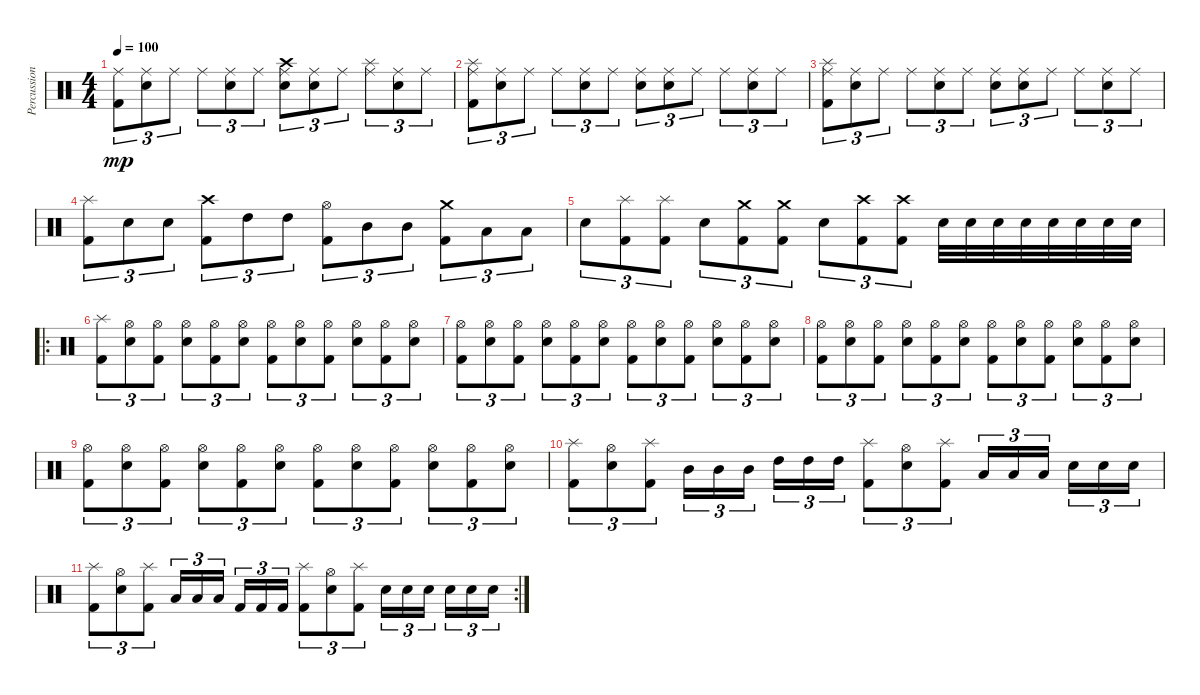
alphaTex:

\track ("Percussion" "Percussion") {instrument percussion}
\staff {score}
\articulation defaults
\ts (4 4)
\tempo 100
\clef neutral
\ks c
("Kick (hit) 2" "Ride (middle)").8{tu (3 2) dy mp} ("Snare (hit) 2" "Ride (middle)").8{tu (3 2)} "Ride (middle)".8{tu (3 2)} "Ride (middle)".8{tu (3 2)} ("Snare (hit) 2" "Ride (middle)").8{tu (3 2)} "Ride (middle)".8{tu (3 2)} ("Crash high (hit)" "Snare (hit) 2" "Ride (middle)").8{tu (3 2)} ("Snare (hit) 2" "Ride (middle)").8{tu (3 2)} "Ride (middle)".8{tu (3 2)} ("Splash (hit)" "Ride (middle)").8{tu (3 2)} ("Snare (hit) 2" "Ride (middle)").8{tu (3 2)} "Ride (middle)".8{tu (3 2)} |
("Splash (hit)" "Kick (hit) 2" "Ride (middle)").8{tu (3 2)} ("Snare (hit) 2" "Ride (middle)").8{tu (3 2)} "Ride (middle)".8{tu (3 2)} "Ride (middle)".8{tu (3 2)} ("Snare (hit) 2" "Ride (middle)").8{tu (3 2)} "Ride (middle)".8{tu (3 2)} ("Snare (hit) 2" "Ride (middle)").8{tu (3 2)} ("Snare (hit) 2" "Ride (middle)").8{tu (3 2)} "Ride (middle)".8{tu (3 2)} "Ride (middle)".8{tu (3 2)} ("Snare (hit) 2" "Ride (middle)").8{tu (3 2)} "Ride (middle)".8{tu (3 2)} |
("Splash (hit)" "Kick (hit) 2" "Ride (middle)").8{tu (3 2)} ("Snare (hit) 2" "Ride (middle)").8{tu (3 2)} "Ride (middle)".8{tu (3 2)} "Ride (middle)".8{tu (3 2)} ("Snare (hit) 2" "Ride (middle)").8{tu (3 2)} "Ride (middle)".8{tu (3 2)} ("Snare (hit) 2" "Ride (middle)").8{tu (3 2)} ("Snare (hit) 2" "Ride (middle)").8{tu (3 2)} "Ride (middle)".8{tu (3 2)} "Ride (middle)".8{tu (3 2)} ("Snare (hit) 2" "Ride (middle)").8{tu (3 2)} "Ride (middle)".8{tu (3 2)} |
("Kick (hit) 2" "Splash (hit)").8{tu (3 2)} "Snare (hit) 2".8{tu (3 2)} "Snare (hit) 2".8{tu (3 2)} ("Kick (hit) 2" "Crash high (hit)").8{tu (3 2)} "High Tom (hit)".8{tu (3 2)} "High Tom (hit)".8{tu (3 2)} ("Kick (hit) 2" "Hi-Hat (open)").8{tu (3 2)} "Mid Tom (hit)".8{tu (3 2)} "Mid Tom (hit)".8{tu (3 2)} ("Kick (hit) 2" "Crash medium (hit)").8{tu (3 2)} "Low Tom (hit)".8{tu (3 2)} "Low Tom (hit)".8{tu (3 2)} |
"Snare (hit) 2".8{tu (3 2)} ("Splash (hit)" "Kick (hit) 2").8{tu (3 2)} ("Splash (hit)" "Kick (hit) 2").8{tu (3 2)} "Snare (hit) 2".8{tu (3 2)} ("Crash medium (hit)" "Kick (hit) 2").8{tu (3 2)} ("Crash medium (hit)" "Kick (hit) 2").8{tu (3 2)} "Snare (hit) 2".8{tu (3 2)} ("Crash high (hit)" "Kick (hit) 2").8{tu (3 2)} ("Crash high (hit)" "Kick (hit) 2").8{tu (3 2)} "Snare (hit) 2".32 "Snare (hit) 2".32 "Snare (hit) 2".32 "Snare (hit) 2".32 "Snare (hit) 2".32 "Snare (hit) 2".32 "Snare (hit) 2".32 "Snare (hit) 2".32 |
\ro
("Splash (hit)" "Kick (hit) 2").8{tu (3 2)} ("Hi-Hat (open)" "Snare (hit) 2").8{tu (3 2)} ("Hi-Hat (open)" "Kick (hit) 2").8{tu (3 2)} ("Hi-Hat (open)" "Snare (hit) 2").8{tu (3 2)} ("Hi-Hat (open)" "Kick (hit) 2").8{tu (3 2)} ("Hi-Hat (open)" "Snare (hit) 2").8{tu (3 2)} ("Hi-Hat (open)" "Kick (hit) 2").8{tu (3 2)} ("Hi-Hat (open)" "Snare (hit) 2").8{tu (3 2)} ("Hi-Hat (open)" "Kick (hit) 2").8{tu (3 2)} ("Hi-Hat (open)" "Snare (hit) 2").8{tu (3 2)} ("Hi-Hat (open)" "Kick (hit) 2").8{tu (3 2)} ("Hi-Hat (open)" "Snare (hit) 2").8{tu (3 2)} |
("Hi-Hat (open)" "Kick (hit) 2").8{tu (3 2)} ("Hi-Hat (open)" "Snare (hit) 2").8{tu (3 2)} ("Hi-Hat (open)" "Kick (hit) 2").8{tu (3 2)} ("Hi-Hat (open)" "Snare (hit) 2").8{tu (3 2)} ("Hi-Hat (open)" "Kick (hit) 2").8{tu (3 2)} ("Hi-Hat (open)" "Snare (hit) 2").8{tu (3 2)} ("Hi-Hat (open)" "Kick (hit) 2").8{tu (3 2)} ("Hi-Hat (open)" "Snare (hit) 2").8{tu (3 2)} ("Hi-Hat (open)" "Kick (hit) 2").8{tu (3 2)} ("Hi-Hat (open)" "Snare (hit) 2").8{tu (3 2)} ("Hi-Hat (open)" "Kick (hit) 2").8{tu (3 2)} ("Hi-Hat (open)" "Snare (hit) 2").8{tu (3 2)} |
("Hi-Hat (open)" "Kick (hit) 2").8{tu (3 2)} ("Hi-Hat (open)" "Snare (hit) 2").8{tu (3 2)} ("Hi-Hat (open)" "Kick (hit) 2").8{tu (3 2)} ("Hi-Hat (open)" "Snare (hit) 2").8{tu (3 2)} ("Hi-Hat (open)" "Kick (hit) 2").8{tu (3 2)} ("Hi-Hat (open)" "Snare (hit) 2").8{tu (3 2)} ("Hi-Hat (open)" "Kick (hit) 2").8{tu (3 2)} ("Hi-Hat (open)" "Snare (hit) 2").8{tu (3 2)} ("Hi-Hat (open)" "Kick (hit) 2").8{tu (3 2)} ("Hi-Hat (open)" "Snare (hit) 2").8{tu (3 2)} ("Hi-Hat (open)" "Kick (hit) 2").8{tu (3 2)} ("Hi-Hat (open)" "Snare (hit) 2").8{tu (3 2)} |
("Hi-Hat (open)" "Kick (hit) 2").8{tu (3 2)} ("Hi-Hat (open)" "Snare (hit) 2").8{tu (3 2)} ("Hi-Hat (open)" "Kick (hit) 2").8{tu (3 2)} ("Hi-Hat (open)" "Snare (hit) 2").8{tu (3 2)} ("Hi-Hat (open)" "Kick (hit) 2").8{tu (3 2)} ("Hi-Hat (open)" "Snare (hit) 2").8{tu (3 2)} ("Hi-Hat (open)" "Kick (hit) 2").8{tu (3 2)} ("Hi-Hat (open)" "Snare (hit) 2").8{tu (3 2)} ("Hi-Hat (open)" "Kick (hit) 2").8{tu (3 2)} ("Hi-Hat (open)" "Snare (hit) 2").8{tu (3 2)} ("Hi-Hat (open)" "Kick (hit) 2").8{tu (3 2)} ("Hi-Hat (open)" "Snare (hit) 2").8{tu (3 2)} |
("Splash (hit)" "Kick (hit) 2").8{tu (3 2)} ("Hi-Hat (open)" "Snare (hit) 2").8{tu (3 2)} ("Splash (hit)" "Kick (hit) 2").8{tu (3 2)} "Mid Tom (hit)".16{tu (3 2)} "Mid Tom (hit)".16{tu (3 2)} "Mid Tom (hit)".16{tu (3 2) beam splitsecondary} "High Tom (hit)".16{tu (3 2)} "High Tom (hit)".16{tu (3 2)} "High Tom (hit)".16{tu (3 2)} ("Splash (hit)" "Kick (hit) 2").8{tu (3 2)} ("Hi-Hat (open)" "Snare (hit) 2").8{tu (3 2)} ("Splash (hit)" "Kick (hit) 2").8{tu (3 2)} "Low Tom (hit)".16{tu (3 2)} "Low Tom (hit)".16{tu (3 2)} "Low Tom (hit)".16{tu (3 2) beam splitsecondary} "Snare (hit) 2".16{tu (3 2)} "Snare (hit) 2".16{tu (3 2)} "Snare (hit) 2".16{tu (3 2)} |
\rc 2
("Splash (hit)" "Kick (hit) 2").8{tu (3 2)} ("Hi-Hat (open)" "Snare (hit) 2").8{tu (3 2)} ("Splash (hit)" "Kick (hit) 2").8{tu (3 2)} "Low Tom (hit)".16{tu (3 2)} "Low Tom (hit)".16{tu (3 2)} "Low Tom (hit)".16{tu (3 2) beam splitsecondary} "Kick (hit) 2".16{tu (3 2)} "Kick (hit) 2".16{tu (3 2)} "Kick (hit) 2".16{tu (3 2)} ("Splash (hit)" "Kick (hit) 2").8{tu (3 2)} ("Hi-Hat (open)" "Snare (hit) 2").8{tu (3 2)} ("Splash (hit)" "Kick (hit) 2").8{tu (3 2)} "Snare (hit) 2".16{tu (3 2)} "Snare (hit) 2".16{tu (3 2)} "Snare (hit) 2".16{tu (3 2) beam splitsecondary} "Snare (hit) 2".16{tu (3 2)} "Snare (hit) 2".16{tu (3 2)} "Snare (hit) 2".16{tu (3 2)}
